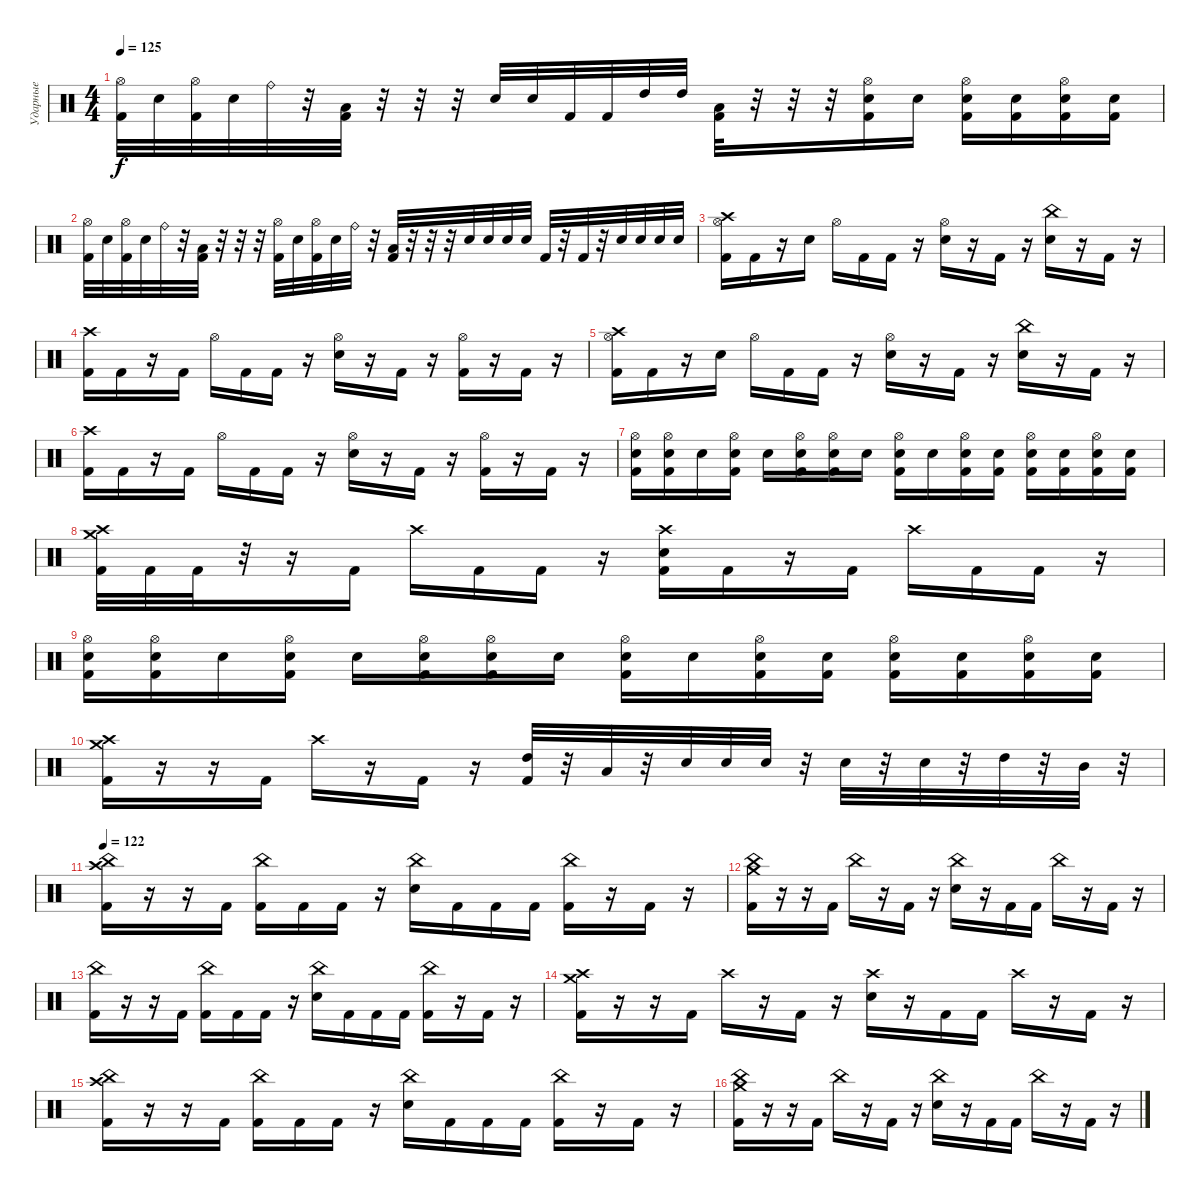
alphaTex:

\track ("Ударные" "Ударные") {instrument percussion}
\staff {score}
\articulation defaults
\ts (4 4)
\tempo 125
\clef neutral
\ks c
("Hi-Hat (open)" "Kick (hit) 2").32{dy f} "Electric Snare (hit)".32 ("Hi-Hat (open)" "Kick (hit) 2").32 "Electric Snare (hit)".32 "Ride (bell)".32 r.32 ("Kick (hit) 2" "Low Tom (hit)").32 r.32 r.32 r.32 "Electric Snare (hit)".32 "Electric Snare (hit)".32 "Kick (hit) 2".32 "Kick (hit) 2".32 "High Tom (hit)".32 "High Tom (hit)".32 ("Kick (hit) 2" "Low Tom (hit)").32 r.32 r.32 r.32 ("Hi-Hat (open)" "Electric Snare (hit)" "Kick (hit) 2").16 "Electric Snare (hit)".16 ("Hi-Hat (open)" "Electric Snare (hit)" "Kick (hit) 2").16 ("Electric Snare (hit)" "Kick (hit) 2").16 ("Hi-Hat (open)" "Electric Snare (hit)" "Kick (hit) 2").16 ("Electric Snare (hit)" "Kick (hit) 2").16 |
("Hi-Hat (open)" "Kick (hit) 2").32 "Electric Snare (hit)".32 ("Hi-Hat (open)" "Kick (hit) 2").32 "Electric Snare (hit)".32 "Ride (bell)".32 r.32 ("Kick (hit) 2" "Low Tom (hit)").32 r.32 r.32 r.32 ("Hi-Hat (open)" "Kick (hit) 2").32 "Electric Snare (hit)".32 ("Hi-Hat (open)" "Kick (hit) 2").32 "Electric Snare (hit)".32 "Ride (bell)".32 r.32 ("Kick (hit) 2" "Low Tom (hit)").32 r.32 r.32 r.32 "Electric Snare (hit)".32 "Electric Snare (hit)".32 "Electric Snare (hit)".32 "Electric Snare (hit)".32 "Kick (hit) 2".32 r.32 "Kick (hit) 2".32 r.32 "Electric Snare (hit)".32 "Electric Snare (hit)".32 "Electric Snare (hit)".32 "Electric Snare (hit)".32 |
("Crash high (hit)" "Hi-Hat (open)" "Kick (hit) 2").16 "Kick (hit) 2".16 r.16 "Electric Snare (hit)".16 "Hi-Hat (open)".16 "Kick (hit) 2".16 "Kick (hit) 2".16 r.16 ("Hi-Hat (open)" "Electric Snare (hit)").16 r.16 "Kick (hit) 2".16 r.16 ("China (hit)" "Electric Snare (hit)").16 r.16 "Kick (hit) 2".16 r.16 |
("Crash high (hit)" "Kick (hit) 2").16 "Kick (hit) 2".16 r.16 "Kick (hit) 2".16 "Hi-Hat (open)".16 "Kick (hit) 2".16 "Kick (hit) 2".16 r.16 ("Hi-Hat (open)" "Electric Snare (hit)").16 r.16 "Kick (hit) 2".16 r.16 ("Hi-Hat (open)" "Kick (hit) 2").16 r.16 "Kick (hit) 2".16 r.16 |
("Crash high (hit)" "Hi-Hat (open)" "Kick (hit) 2").16 "Kick (hit) 2".16 r.16 "Electric Snare (hit)".16 "Hi-Hat (open)".16 "Kick (hit) 2".16 "Kick (hit) 2".16 r.16 ("Hi-Hat (open)" "Electric Snare (hit)").16 r.16 "Kick (hit) 2".16 r.16 ("China (hit)" "Electric Snare (hit)").16 r.16 "Kick (hit) 2".16 r.16 |
("Crash high (hit)" "Kick (hit) 2").16 "Kick (hit) 2".16 r.16 "Kick (hit) 2".16 "Hi-Hat (open)".16 "Kick (hit) 2".16 "Kick (hit) 2".16 r.16 ("Hi-Hat (open)" "Electric Snare (hit)").16 r.16 "Kick (hit) 2".16 r.16 ("Hi-Hat (open)" "Kick (hit) 2").16 r.16 "Kick (hit) 2".16 r.16 |
("Hi-Hat (open)" "Electric Snare (hit)" "Kick (hit) 2").16 ("Hi-Hat (open)" "Electric Snare (hit)" "Kick (hit) 2").16 "Electric Snare (hit)".16 ("Hi-Hat (open)" "Electric Snare (hit)" "Kick (hit) 2").16 "Electric Snare (hit)".16 ("Hi-Hat (open)" "Electric Snare (hit)" "Kick (hit) 2").16 ("Hi-Hat (open)" "Electric Snare (hit)" "Kick (hit) 2").16 "Electric Snare (hit)".16 ("Hi-Hat (open)" "Electric Snare (hit)" "Kick (hit) 2").16 "Electric Snare (hit)".16 ("Hi-Hat (open)" "Electric Snare (hit)" "Kick (hit) 2").16 ("Electric Snare (hit)" "Kick (hit) 2").16 ("Hi-Hat (open)" "Electric Snare (hit)" "Kick (hit) 2").16 ("Electric Snare (hit)" "Kick (hit) 2").16 ("Hi-Hat (open)" "Electric Snare (hit)" "Kick (hit) 2").16 ("Electric Snare (hit)" "Kick (hit) 2").16 |
("Crash high (hit)" "Crash medium (hit)" "Kick (hit) 2").32 "Kick (hit) 2".32 "Kick (hit) 2".32 r.32 r.16 "Kick (hit) 2".16 "Crash high (hit)".16 "Kick (hit) 2".16 "Kick (hit) 2".16 r.16 ("Crash high (hit)" "Electric Snare (hit)" "Kick (hit) 2").16 "Kick (hit) 2".16 r.16 "Kick (hit) 2".16 "Crash high (hit)".16 "Kick (hit) 2".16 "Kick (hit) 2".16 r.16 |
("Hi-Hat (open)" "Electric Snare (hit)" "Kick (hit) 2").16 ("Hi-Hat (open)" "Electric Snare (hit)" "Kick (hit) 2").16 "Electric Snare (hit)".16 ("Hi-Hat (open)" "Electric Snare (hit)" "Kick (hit) 2").16 "Electric Snare (hit)".16 ("Hi-Hat (open)" "Electric Snare (hit)" "Kick (hit) 2").16 ("Hi-Hat (open)" "Electric Snare (hit)" "Kick (hit) 2").16 "Electric Snare (hit)".16 ("Hi-Hat (open)" "Electric Snare (hit)" "Kick (hit) 2").16 "Electric Snare (hit)".16 ("Hi-Hat (open)" "Electric Snare (hit)" "Kick (hit) 2").16 ("Electric Snare (hit)" "Kick (hit) 2").16 ("Hi-Hat (open)" "Electric Snare (hit)" "Kick (hit) 2").16 ("Electric Snare (hit)" "Kick (hit) 2").16 ("Hi-Hat (open)" "Electric Snare (hit)" "Kick (hit) 2").16 ("Electric Snare (hit)" "Kick (hit) 2").16 |
("Crash high (hit)" "Crash medium (hit)" "Kick (hit) 2").16 r.16 r.16 "Kick (hit) 2".16 "Crash high (hit)".16 r.16 "Kick (hit) 2".16 r.16 ("High Tom (hit)" "Kick (hit) 2").32 r.32 "Low Tom (hit)".32 r.32 "Electric Snare (hit)".32 "Electric Snare (hit)".32 "Electric Snare (hit)".32 r.32 "Electric Snare (hit)".32 r.32 "Electric Snare (hit)".32 r.32 "High Tom (hit)".32 r.32 "Mid Tom (hit)".32 r.32 |
\tempo 122
("China (hit)" "Crash high (hit)" "Kick (hit) 2").16 r.16 r.16 "Kick (hit) 2".16 ("China (hit)" "Kick (hit) 2").16 "Kick (hit) 2".16 "Kick (hit) 2".16 r.16 ("China (hit)" "Electric Snare (hit)").16 "Kick (hit) 2".16 "Kick (hit) 2".16 "Kick (hit) 2".16 ("China (hit)" "Kick (hit) 2").16 r.16 "Kick (hit) 2".16 r.16 |
("China (hit)" "Crash medium (hit)" "Kick (hit) 2").16 r.16 r.16 "Kick (hit) 2".16 "China (hit)".16 r.16 "Kick (hit) 2".16 r.16 ("China (hit)" "Electric Snare (hit)").16 r.16 "Kick (hit) 2".16 "Kick (hit) 2".16 "China (hit)".16 r.16 "Kick (hit) 2".16 r.16 |
("China (hit)" "Kick (hit) 2").16 r.16 r.16 "Kick (hit) 2".16 ("China (hit)" "Kick (hit) 2").16 "Kick (hit) 2".16 "Kick (hit) 2".16 r.16 ("China (hit)" "Electric Snare (hit)").16 "Kick (hit) 2".16 "Kick (hit) 2".16 "Kick (hit) 2".16 ("China (hit)" "Kick (hit) 2").16 r.16 "Kick (hit) 2".16 r.16 |
("Crash high (hit)" "Crash medium (hit)" "Kick (hit) 2").16 r.16 r.16 "Kick (hit) 2".16 "Crash high (hit)".16 r.16 "Kick (hit) 2".16 r.16 ("Crash high (hit)" "Electric Snare (hit)").16 r.16 "Kick (hit) 2".16 "Kick (hit) 2".16 "Crash high (hit)".16 r.16 "Kick (hit) 2".16 r.16 |
("China (hit)" "Crash high (hit)" "Kick (hit) 2").16 r.16 r.16 "Kick (hit) 2".16 ("China (hit)" "Kick (hit) 2").16 "Kick (hit) 2".16 "Kick (hit) 2".16 r.16 ("China (hit)" "Electric Snare (hit)").16 "Kick (hit) 2".16 "Kick (hit) 2".16 "Kick (hit) 2".16 ("China (hit)" "Kick (hit) 2").16 r.16 "Kick (hit) 2".16 r.16 |
("China (hit)" "Crash medium (hit)" "Kick (hit) 2").16 r.16 r.16 "Kick (hit) 2".16 "China (hit)".16 r.16 "Kick (hit) 2".16 r.16 ("China (hit)" "Electric Snare (hit)").16 r.16 "Kick (hit) 2".16 "Kick (hit) 2".16 "China (hit)".16 r.16 "Kick (hit) 2".16 r.16
